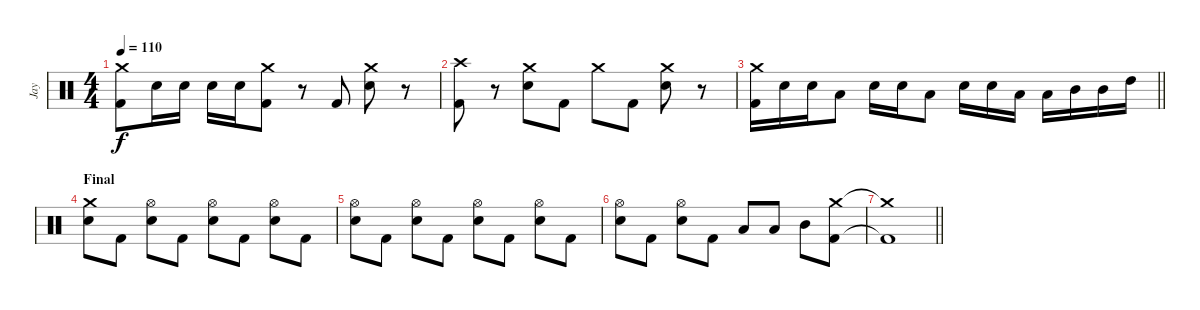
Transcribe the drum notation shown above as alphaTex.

\track ("Jay" "Jay") {instrument percussion}
\staff {score}
\articulation defaults
\ts (4 4)
\tempo 110
\clef neutral
\ks c
("Crash medium (hit)" "Kick (hit) 2").8{dy f} "Electric Snare (hit)".16 "Electric Snare (hit)".16 "Electric Snare (hit)".16 "Electric Snare (hit)".16 ("Crash medium (hit)" "Kick (hit) 2").8 r.8 "Kick (hit) 2".8 ("Crash medium (hit)" "Electric Snare (hit)").8 r.8 |
("Crash high (hit)" "Kick (hit) 2").8 r.8 ("Crash medium (hit)" "Electric Snare (hit)").8 "Kick (hit) 2".8 "Crash medium (hit)".8 "Kick (hit) 2".8 ("Crash medium (hit)" "Electric Snare (hit)").8 r.8 |
\barLineRight lightlight
("Crash medium (hit)" "Kick (hit) 2").16 "Electric Snare (hit)".16 "Electric Snare (hit)".16 "Low Tom (hit)".8 "Electric Snare (hit)".16 "Electric Snare (hit)".16 "Low Tom (hit)".8 "Electric Snare (hit)".16 "Electric Snare (hit)".16 "Low Tom (hit)".16 "Low Tom (hit)".16 "Mid Tom (hit)".16 "Mid Tom (hit)".16 "High Tom (hit)".16 |
\section ("" "Final")
("Crash medium (hit)" "Electric Snare (hit)").8 "Kick (hit) 2".8 ("Hi-Hat (open)" "Electric Snare (hit)").8 "Kick (hit) 2".8 ("Hi-Hat (open)" "Electric Snare (hit)").8 "Kick (hit) 2".8 ("Hi-Hat (open)" "Electric Snare (hit)").8 "Kick (hit) 2".8 |
("Hi-Hat (open)" "Electric Snare (hit)").8 "Kick (hit) 2".8 ("Hi-Hat (open)" "Electric Snare (hit)").8 "Kick (hit) 2".8 ("Hi-Hat (open)" "Electric Snare (hit)").8 "Kick (hit) 2".8 ("Hi-Hat (open)" "Electric Snare (hit)").8 "Kick (hit) 2".8 |
("Hi-Hat (open)" "Electric Snare (hit)").8 "Kick (hit) 2".8 ("Hi-Hat (open)" "Electric Snare (hit)").8 "Kick (hit) 2".8 "Low Tom (hit)".8 "Low Tom (hit)".8 "Mid Tom (hit)".8 ("Crash medium (hit)" "Kick (hit) 2").8 |
\barLineRight lightlight
("Crash medium (hit)"{t} "Kick (hit) 2"{t}).1
